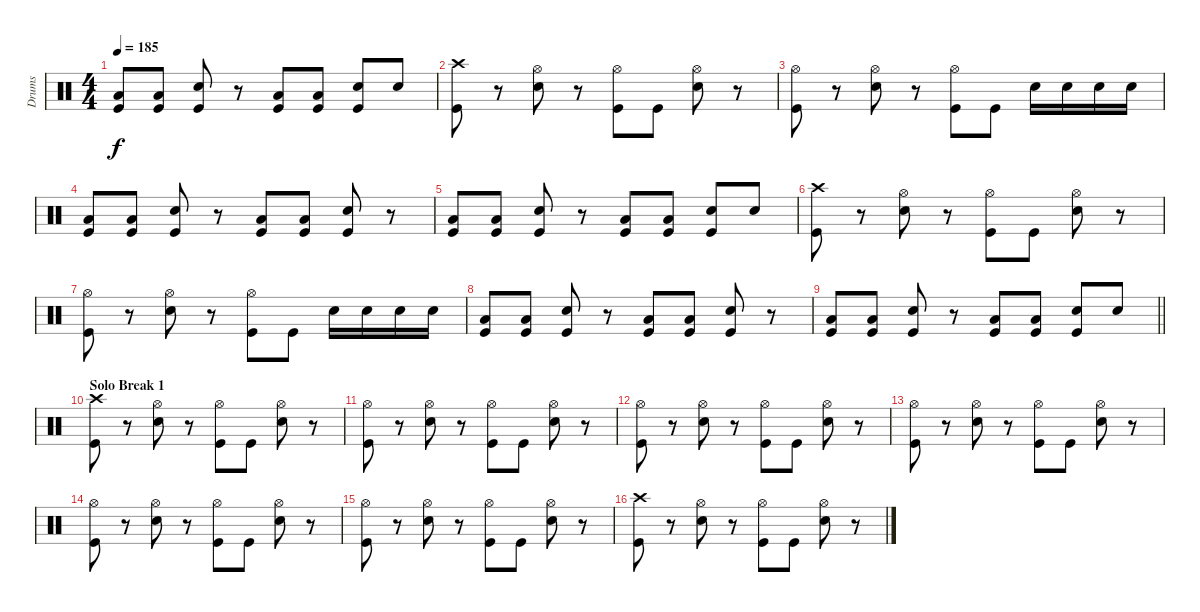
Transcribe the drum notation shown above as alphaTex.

\track ("Drums" "Drums") {instrument percussion}
\staff {score}
\articulation defaults
\ts (4 4)
\tempo 185
\clef neutral
\ks c
("Low Floor Tom (hit)" "Kick (hit)").8{dy f} ("Low Floor Tom (hit)" "Kick (hit)").8 ("Electric Snare (hit)" "Kick (hit)").8 r.8 ("Low Floor Tom (hit)" "Kick (hit)").8 ("Low Floor Tom (hit)" "Kick (hit)").8 ("Electric Snare (hit)" "Kick (hit)").8 "Electric Snare (hit)".8 |
("Crash high (hit)" "Kick (hit)").8 r.8 ("Hi-Hat (open)" "Electric Snare (hit)").8 r.8 ("Hi-Hat (open)" "Kick (hit)").8 "Kick (hit)".8 ("Hi-Hat (open)" "Electric Snare (hit)").8 r.8 |
("Hi-Hat (open)" "Kick (hit)").8 r.8 ("Hi-Hat (open)" "Electric Snare (hit)").8 r.8 ("Hi-Hat (open)" "Kick (hit)").8 "Kick (hit)".8 "Electric Snare (hit)".16 "Electric Snare (hit)".16 "Electric Snare (hit)".16 "Electric Snare (hit)".16 |
("Low Floor Tom (hit)" "Kick (hit)").8 ("Low Floor Tom (hit)" "Kick (hit)").8 ("Electric Snare (hit)" "Kick (hit)").8 r.8 ("Low Floor Tom (hit)" "Kick (hit)").8 ("Low Floor Tom (hit)" "Kick (hit)").8 ("Electric Snare (hit)" "Kick (hit)").8 r.8 |
("Low Floor Tom (hit)" "Kick (hit)").8 ("Low Floor Tom (hit)" "Kick (hit)").8 ("Electric Snare (hit)" "Kick (hit)").8 r.8 ("Low Floor Tom (hit)" "Kick (hit)").8 ("Low Floor Tom (hit)" "Kick (hit)").8 ("Electric Snare (hit)" "Kick (hit)").8 "Electric Snare (hit)".8 |
("Crash high (hit)" "Kick (hit)").8 r.8 ("Hi-Hat (open)" "Electric Snare (hit)").8 r.8 ("Hi-Hat (open)" "Kick (hit)").8 "Kick (hit)".8 ("Hi-Hat (open)" "Electric Snare (hit)").8 r.8 |
("Hi-Hat (open)" "Kick (hit)").8 r.8 ("Hi-Hat (open)" "Electric Snare (hit)").8 r.8 ("Hi-Hat (open)" "Kick (hit)").8 "Kick (hit)".8 "Electric Snare (hit)".16 "Electric Snare (hit)".16 "Electric Snare (hit)".16 "Electric Snare (hit)".16 |
("Low Floor Tom (hit)" "Kick (hit)").8 ("Low Floor Tom (hit)" "Kick (hit)").8 ("Electric Snare (hit)" "Kick (hit)").8 r.8 ("Low Floor Tom (hit)" "Kick (hit)").8 ("Low Floor Tom (hit)" "Kick (hit)").8 ("Electric Snare (hit)" "Kick (hit)").8 r.8 |
\barLineRight lightlight
("Low Floor Tom (hit)" "Kick (hit)").8 ("Low Floor Tom (hit)" "Kick (hit)").8 ("Electric Snare (hit)" "Kick (hit)").8 r.8 ("Low Floor Tom (hit)" "Kick (hit)").8 ("Low Floor Tom (hit)" "Kick (hit)").8 ("Electric Snare (hit)" "Kick (hit)").8 "Electric Snare (hit)".8 |
\section ("" "Solo Break 1")
("Crash high (hit)" "Kick (hit)").8 r.8 ("Hi-Hat (open)" "Electric Snare (hit)").8 r.8 ("Hi-Hat (open)" "Kick (hit)").8 "Kick (hit)".8 ("Hi-Hat (open)" "Electric Snare (hit)").8 r.8 |
("Hi-Hat (open)" "Kick (hit)").8 r.8 ("Hi-Hat (open)" "Electric Snare (hit)").8 r.8 ("Hi-Hat (open)" "Kick (hit)").8 "Kick (hit)".8 ("Hi-Hat (open)" "Electric Snare (hit)").8 r.8 |
("Hi-Hat (open)" "Kick (hit)").8 r.8 ("Hi-Hat (open)" "Electric Snare (hit)").8 r.8 ("Hi-Hat (open)" "Kick (hit)").8 "Kick (hit)".8 ("Hi-Hat (open)" "Electric Snare (hit)").8 r.8 |
("Hi-Hat (open)" "Kick (hit)").8 r.8 ("Hi-Hat (open)" "Electric Snare (hit)").8 r.8 ("Hi-Hat (open)" "Kick (hit)").8 "Kick (hit)".8 ("Hi-Hat (open)" "Electric Snare (hit)").8 r.8 |
("Hi-Hat (open)" "Kick (hit)").8 r.8 ("Hi-Hat (open)" "Electric Snare (hit)").8 r.8 ("Hi-Hat (open)" "Kick (hit)").8 "Kick (hit)".8 ("Hi-Hat (open)" "Electric Snare (hit)").8 r.8 |
("Hi-Hat (open)" "Kick (hit)").8 r.8 ("Hi-Hat (open)" "Electric Snare (hit)").8 r.8 ("Hi-Hat (open)" "Kick (hit)").8 "Kick (hit)".8 ("Hi-Hat (open)" "Electric Snare (hit)").8 r.8 |
("Crash high (hit)" "Kick (hit)").8 r.8 ("Hi-Hat (open)" "Electric Snare (hit)").8 r.8 ("Hi-Hat (open)" "Kick (hit)").8 "Kick (hit)".8 ("Hi-Hat (open)" "Electric Snare (hit)").8 r.8
